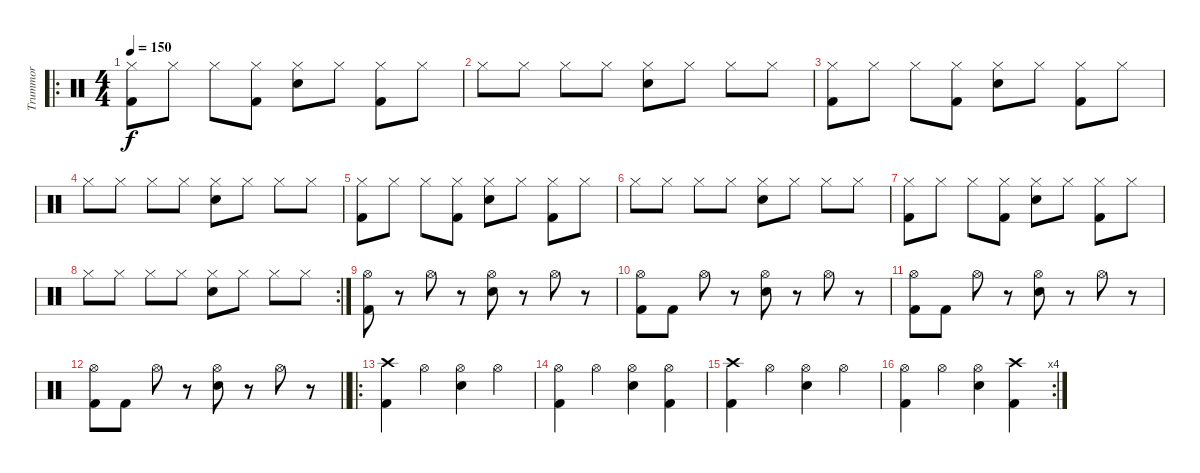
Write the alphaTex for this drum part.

\track ("Trummor" "Trummor") {instrument percussion}
\staff {score}
\articulation defaults
\ro
\ts (4 4)
\tempo 150
\clef neutral
\ks c
("Hi-Hat (closed)" "Kick (hit) 2").8{dy f} "Hi-Hat (closed)".8 "Hi-Hat (closed)".8 ("Hi-Hat (closed)" "Kick (hit) 2").8 ("Hi-Hat (closed)" "Snare (hit) 2").8 "Hi-Hat (closed)".8 ("Hi-Hat (closed)" "Kick (hit) 2").8 "Hi-Hat (closed)".8 |
"Hi-Hat (closed)".8 "Hi-Hat (closed)".8 "Hi-Hat (closed)".8 "Hi-Hat (closed)".8 ("Hi-Hat (closed)" "Snare (hit) 2").8 "Hi-Hat (closed)".8 "Hi-Hat (closed)".8 "Hi-Hat (closed)".8 |
("Hi-Hat (closed)" "Kick (hit) 2").8 "Hi-Hat (closed)".8 "Hi-Hat (closed)".8 ("Hi-Hat (closed)" "Kick (hit) 2").8 ("Hi-Hat (closed)" "Snare (hit) 2").8 "Hi-Hat (closed)".8 ("Hi-Hat (closed)" "Kick (hit) 2").8 "Hi-Hat (closed)".8 |
"Hi-Hat (closed)".8 "Hi-Hat (closed)".8 "Hi-Hat (closed)".8 "Hi-Hat (closed)".8 ("Hi-Hat (closed)" "Snare (hit) 2").8 "Hi-Hat (closed)".8 "Hi-Hat (closed)".8 "Hi-Hat (closed)".8 |
("Hi-Hat (closed)" "Kick (hit) 2").8 "Hi-Hat (closed)".8 "Hi-Hat (closed)".8 ("Hi-Hat (closed)" "Kick (hit) 2").8 ("Hi-Hat (closed)" "Snare (hit) 2").8 "Hi-Hat (closed)".8 ("Hi-Hat (closed)" "Kick (hit) 2").8 "Hi-Hat (closed)".8 |
"Hi-Hat (closed)".8 "Hi-Hat (closed)".8 "Hi-Hat (closed)".8 "Hi-Hat (closed)".8 ("Hi-Hat (closed)" "Snare (hit) 2").8 "Hi-Hat (closed)".8 "Hi-Hat (closed)".8 "Hi-Hat (closed)".8 |
("Hi-Hat (closed)" "Kick (hit) 2").8 "Hi-Hat (closed)".8 "Hi-Hat (closed)".8 ("Hi-Hat (closed)" "Kick (hit) 2").8 ("Hi-Hat (closed)" "Snare (hit) 2").8 "Hi-Hat (closed)".8 ("Hi-Hat (closed)" "Kick (hit) 2").8 "Hi-Hat (closed)".8 |
\rc 2 "Hi-Hat (closed)".8 "Hi-Hat (closed)".8 "Hi-Hat (closed)".8 "Hi-Hat (closed)".8
("Hi-Hat (closed)" "Snare (hit) 2").8 "Hi-Hat (closed)".8 "Hi-Hat (closed)".8 "Hi-Hat (closed)".8 |
("Hi-Hat (open)" "Kick (hit) 2").8 r.8 "Hi-Hat (open)".8 r.8 ("Hi-Hat (open)" "Snare (hit) 2").8 r.8 "Hi-Hat (open)".8 r.8 |
("Hi-Hat (open)" "Kick (hit) 2").8 "Kick (hit) 2".8 "Hi-Hat (open)".8 r.8 ("Hi-Hat (open)" "Snare (hit) 2").8 r.8 "Hi-Hat (open)".8 r.8 |
("Hi-Hat (open)" "Kick (hit) 2").8 "Kick (hit) 2".8 "Hi-Hat (open)".8 r.8 ("Hi-Hat (open)" "Snare (hit) 2").8 r.8 "Hi-Hat (open)".8 r.8 |
\barLineRight lightlight
("Hi-Hat (open)" "Kick (hit) 2").8 "Kick (hit) 2".8 "Hi-Hat (open)".8 r.8 ("Hi-Hat (open)" "Snare (hit) 2").8 r.8 "Hi-Hat (open)".8 r.8 |
\ro
("Crash high (hit)" "Kick (hit) 2").4 "Hi-Hat (open)".4 ("Hi-Hat (open)" "Snare (hit) 2").4 "Hi-Hat (open)".4 |
("Hi-Hat (open)" "Kick (hit) 2").4 "Hi-Hat (open)".4 ("Hi-Hat (open)" "Snare (hit) 2").4 ("Hi-Hat (open)" "Kick (hit) 2").4 |
("Crash high (hit)" "Kick (hit) 2").4 "Hi-Hat (open)".4 ("Hi-Hat (open)" "Snare (hit) 2").4 "Hi-Hat (open)".4 |
\rc 4
("Hi-Hat (open)" "Kick (hit) 2").4 "Hi-Hat (open)".4 ("Hi-Hat (open)" "Snare (hit) 2").4 ("Crash high (hit)" "Kick (hit) 2").4
